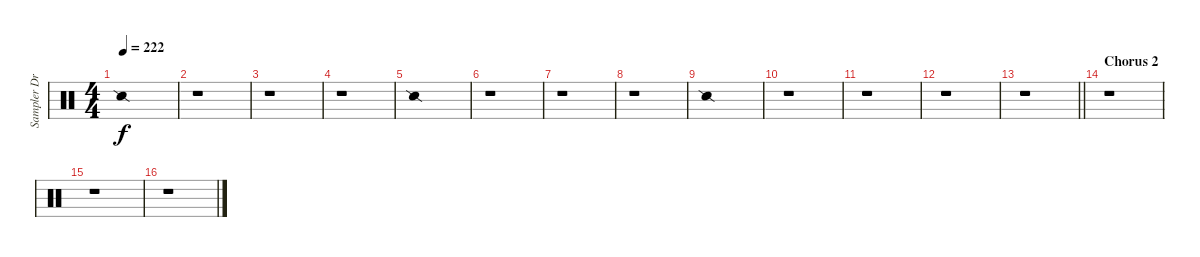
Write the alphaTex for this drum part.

\track ("Sampler Drums 2" "Sampler Dr") {instrument percussion}
\staff {score}
\articulation defaults
\ts (4 4)
\tempo 222
\clef neutral
\ks c "Snare (side stick) 2".1{dy f}
|
r.1 |
r.1 |
r.1 |
"Snare (side stick) 2".1 |
r.1 |
r.1 |
r.1 |
"Snare (side stick) 2".1 |
r.1 |
r.1 |
r.1 |
\barLineRight lightlight
r.1 |
\section ("" "Chorus 2")
r.1 |
r.1 |
r.1
